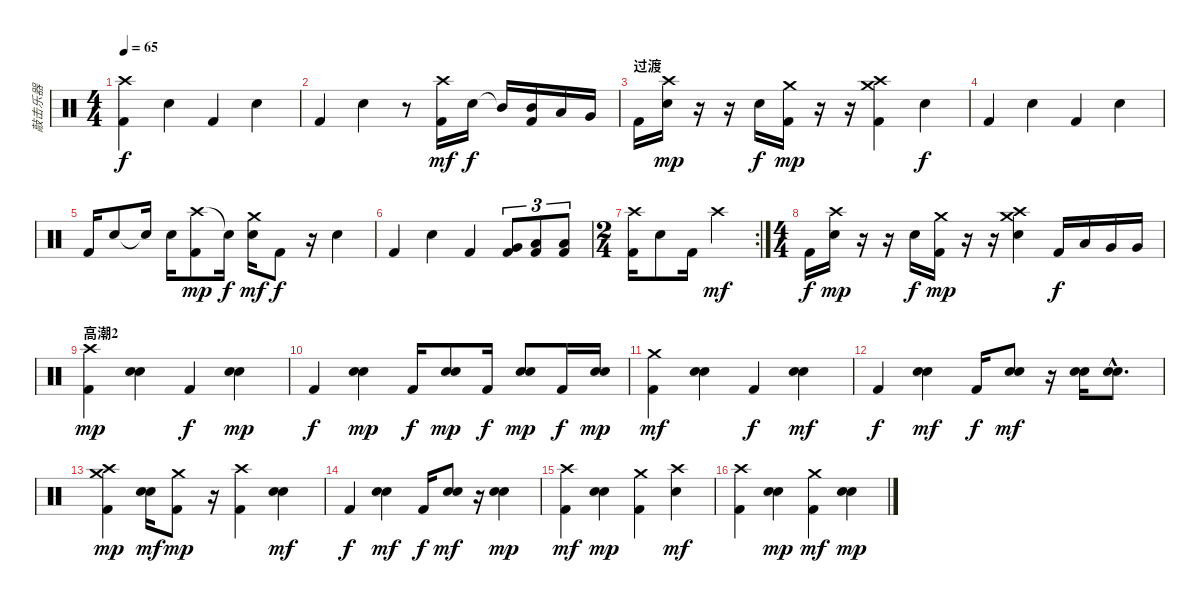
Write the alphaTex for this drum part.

\track ("敲击乐器" "敲击乐器") {instrument percussion}
\staff {score}
\articulation defaults
\ts (4 4)
\tempo 65
\clef neutral
\ks c
("Crash high (hit)" "Kick (hit) 2").4{dy f} "Snare (hit) 2".4 "Kick (hit) 2".4 "Snare (hit) 2".4 |
"Kick (hit) 2".4 "Snare (hit) 2".4 r.8 ("Crash high (hit)" "Kick (hit) 2").16{dy mf} "Snare (hit) 2".16{dy f} "Mid Tom (hit)"{t}.16 ("Mid Tom (hit)" "Kick (hit) 2").16 "Low Tom (hit)".16 "Very Low Tom (hit)".16 |
\section ("" "过渡")
"Kick (hit) 2".16 ("Snare (hit) 2" "Crash high (hit)").16{dy mp} r.16 r.16 "Snare (hit) 2".16{dy f} ("Kick (hit) 2" "Crash medium (hit)").16{dy mp} r.16 r.16 ("Crash high (hit)" "Crash medium (hit)" "Kick (hit) 2").4 "Snare (hit) 2".4{dy f} |
"Kick (hit) 2".4 "Snare (hit) 2".4 "Kick (hit) 2".4 "Snare (hit) 2".4 |
"Kick (hit) 2".16 "Snare (hit) 2".8 "Snare (hit) 2"{t}.16 "Snare (hit) 2".16 ("Crash high (hit)" "Kick (hit) 2").8{dy mp} "Snare (hit)"{t}.16{dy f} ("Crash medium (hit)" "Snare (hit) 2").16{dy mf} "Kick (hit) 2".8{dy f} r.16 "Snare (hit) 2".4 |
"Kick (hit) 2".4 "Snare (hit) 2".4 "Kick (hit) 2".4 ("Very Low Tom (hit)" "Kick (hit) 2").8{tu (3 2)} ("Low Tom (hit)" "Kick (hit) 2").8{tu (3 2)} ("Low Tom (hit)" "Kick (hit) 2").8{tu (3 2)} |
\rc 2
\ts (2 4)
("Kick (hit) 2" "Crash high (hit)").16 "Snare (hit) 2".8 "Kick (hit) 2".16 "Crash high (hit)".4{dy mf} |
\ts (4 4)
"Kick (hit) 2".16{dy f} ("Snare (hit) 2" "Crash high (hit)").16{dy mp} r.16 r.16 "Snare (hit) 2".16{dy f} ("Kick (hit) 2" "Crash medium (hit)").16{dy mp} r.16 r.16 ("Crash high (hit)" "Crash medium (hit)" "Snare (hit) 2").4 "Kick (hit) 2".16{dy f} "Low Tom (hit)".16 "Very Low Tom (hit)".16 "Very Low Tom (hit)".16 |
\section ("" "高潮2")
("Kick (hit) 2" "Crash high (hit)").4{dy mp} ("Snare (hit) 2" "Electric Snare (hit)").4 "Kick (hit) 2".4{dy f} ("Snare (hit) 2" "Electric Snare (hit)").4{dy mp} |
"Kick (hit) 2".4{dy f} ("Electric Snare (hit)" "Snare (hit) 2").4{dy mp} "Kick (hit) 2".16{dy f} ("Electric Snare (hit)" "Snare (hit) 2").8{dy mp} "Kick (hit) 2".16{dy f} ("Electric Snare (hit)" "Snare (hit) 2").8{dy mp} "Kick (hit) 2".16{dy f} ("Electric Snare (hit)" "Snare (hit) 2").16{dy mp} |
("Crash medium (hit)" "Kick (hit) 2").4{dy mf} ("Electric Snare (hit)" "Snare (hit) 2").4 "Kick (hit) 2".4{dy f} ("Electric Snare (hit)" "Snare (hit) 2").4{dy mf} |
"Kick (hit) 2".4{dy f} ("Electric Snare (hit)" "Snare (hit) 2").4{dy mf} "Kick (hit) 2".16{dy f} ("Electric Snare (hit)" "Snare (hit) 2").8{dy mf} r.16 ("Electric Snare (hit)" "Snare (hit) 2").16 ("Electric Snare (hit)"{hac} "Snare (hit) 2"{hac}).8{d} |
("Crash high (hit)" "Crash medium (hit)" "Kick (hit) 2").4{dy mp} ("Electric Snare (hit)" "Snare (hit) 2").16{dy mf} ("Crash medium (hit)" "Kick (hit) 2").8{dy mp} r.16 ("Crash high (hit)" "Kick (hit) 2").4 ("Electric Snare (hit)" "Snare (hit) 2").4{dy mf} |
"Kick (hit) 2".4{dy f} ("Electric Snare (hit)" "Snare (hit) 2").4{dy mf} "Kick (hit) 2".16{dy f} ("Electric Snare (hit)" "Snare (hit) 2").8{dy mf} r.16 ("Electric Snare (hit)" "Snare (hit) 2").4{dy mp} |
("Crash high (hit)" "Kick (hit) 2").4{dy mf} ("Electric Snare (hit)" "Snare (hit) 2").4{dy mp} ("Crash medium (hit)" "Kick (hit) 2").4 ("Crash high (hit)" "Snare (hit) 2").4{dy mf} |
("Crash high (hit)" "Kick (hit) 2").4 ("Electric Snare (hit)" "Snare (hit) 2").4{dy mp} ("Crash medium (hit)" "Kick (hit) 2").4{dy mf} ("Electric Snare (hit)" "Snare (hit) 2").4{dy mp}
